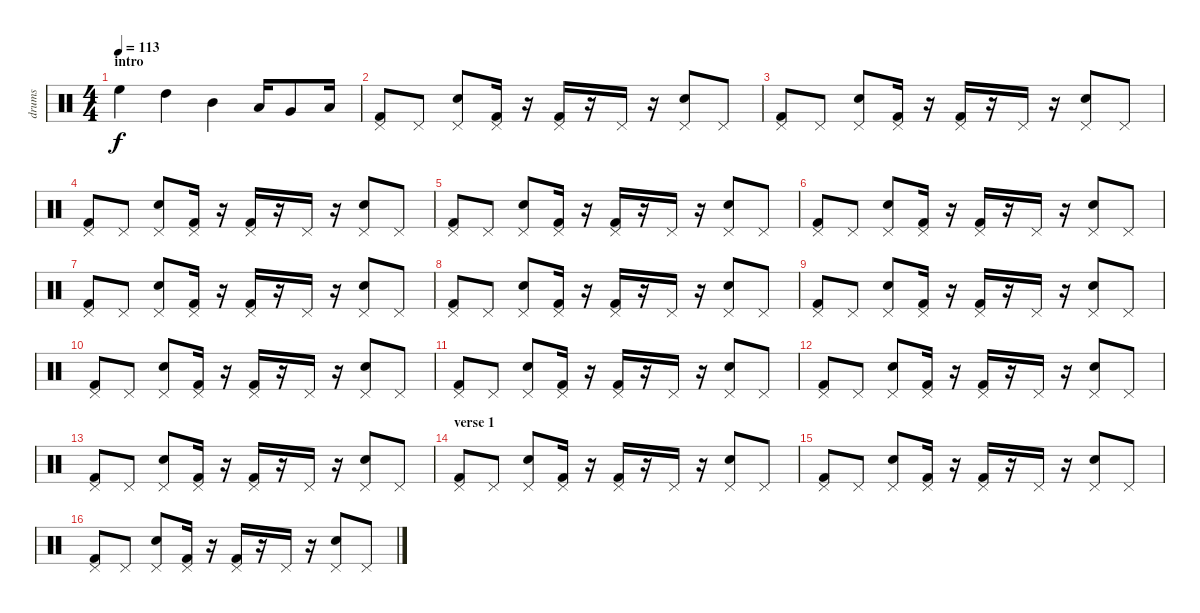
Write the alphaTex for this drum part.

\track ("drums" "drums") {instrument percussion}
\staff {score}
\articulation defaults
\ts (4 4)
\section ("" "intro")
\tempo 113
\clef neutral
\ks c "High Floor Tom (hit)".4{dy f} "High Tom (hit)".4 "Mid Tom (hit)".4 "Low Tom (hit)".16 "Very Low Tom (hit)".8 "Low Floor Tom (hit)".16
|
("Kick (hit) 2" "Pedal Hi-Hat (hit)").8 "Pedal Hi-Hat (hit)".8 ("Snare (hit) 2" "Pedal Hi-Hat (hit)").8 ("Kick (hit) 2" "Pedal Hi-Hat (hit)").16 r.16 ("Kick (hit) 2" "Pedal Hi-Hat (hit)").16 r.16 "Pedal Hi-Hat (hit)".16 r.16 ("Snare (hit) 2" "Pedal Hi-Hat (hit)").8 "Pedal Hi-Hat (hit)".8 |
("Kick (hit) 2" "Pedal Hi-Hat (hit)").8 "Pedal Hi-Hat (hit)".8 ("Snare (hit) 2" "Pedal Hi-Hat (hit)").8 ("Kick (hit) 2" "Pedal Hi-Hat (hit)").16 r.16 ("Kick (hit) 2" "Pedal Hi-Hat (hit)").16 r.16 "Pedal Hi-Hat (hit)".16 r.16 ("Snare (hit) 2" "Pedal Hi-Hat (hit)").8 "Pedal Hi-Hat (hit)".8 |
("Kick (hit) 2" "Pedal Hi-Hat (hit)").8 "Pedal Hi-Hat (hit)".8 ("Snare (hit) 2" "Pedal Hi-Hat (hit)").8 ("Kick (hit) 2" "Pedal Hi-Hat (hit)").16 r.16 ("Kick (hit) 2" "Pedal Hi-Hat (hit)").16 r.16 "Pedal Hi-Hat (hit)".16 r.16 ("Snare (hit) 2" "Pedal Hi-Hat (hit)").8 "Pedal Hi-Hat (hit)".8 |
("Kick (hit) 2" "Pedal Hi-Hat (hit)").8 "Pedal Hi-Hat (hit)".8 ("Snare (hit) 2" "Pedal Hi-Hat (hit)").8 ("Kick (hit) 2" "Pedal Hi-Hat (hit)").16 r.16 ("Kick (hit) 2" "Pedal Hi-Hat (hit)").16 r.16 "Pedal Hi-Hat (hit)".16 r.16 ("Snare (hit) 2" "Pedal Hi-Hat (hit)").8 "Pedal Hi-Hat (hit)".8 |
("Kick (hit) 2" "Pedal Hi-Hat (hit)").8 "Pedal Hi-Hat (hit)".8 ("Snare (hit) 2" "Pedal Hi-Hat (hit)").8 ("Kick (hit) 2" "Pedal Hi-Hat (hit)").16 r.16 ("Kick (hit) 2" "Pedal Hi-Hat (hit)").16 r.16 "Pedal Hi-Hat (hit)".16 r.16 ("Snare (hit) 2" "Pedal Hi-Hat (hit)").8 "Pedal Hi-Hat (hit)".8 |
("Kick (hit) 2" "Pedal Hi-Hat (hit)").8 "Pedal Hi-Hat (hit)".8 ("Snare (hit) 2" "Pedal Hi-Hat (hit)").8 ("Kick (hit) 2" "Pedal Hi-Hat (hit)").16 r.16 ("Kick (hit) 2" "Pedal Hi-Hat (hit)").16 r.16 "Pedal Hi-Hat (hit)".16 r.16 ("Snare (hit) 2" "Pedal Hi-Hat (hit)").8 "Pedal Hi-Hat (hit)".8 |
("Kick (hit) 2" "Pedal Hi-Hat (hit)").8 "Pedal Hi-Hat (hit)".8 ("Snare (hit) 2" "Pedal Hi-Hat (hit)").8 ("Kick (hit) 2" "Pedal Hi-Hat (hit)").16 r.16 ("Kick (hit) 2" "Pedal Hi-Hat (hit)").16 r.16 "Pedal Hi-Hat (hit)".16 r.16 ("Snare (hit) 2" "Pedal Hi-Hat (hit)").8 "Pedal Hi-Hat (hit)".8 |
("Kick (hit) 2" "Pedal Hi-Hat (hit)").8 "Pedal Hi-Hat (hit)".8 ("Snare (hit) 2" "Pedal Hi-Hat (hit)").8 ("Kick (hit) 2" "Pedal Hi-Hat (hit)").16 r.16 ("Kick (hit) 2" "Pedal Hi-Hat (hit)").16 r.16 "Pedal Hi-Hat (hit)".16 r.16 ("Snare (hit) 2" "Pedal Hi-Hat (hit)").8 "Pedal Hi-Hat (hit)".8 |
("Kick (hit) 2" "Pedal Hi-Hat (hit)").8 "Pedal Hi-Hat (hit)".8 ("Snare (hit) 2" "Pedal Hi-Hat (hit)").8 ("Kick (hit) 2" "Pedal Hi-Hat (hit)").16 r.16 ("Kick (hit) 2" "Pedal Hi-Hat (hit)").16 r.16 "Pedal Hi-Hat (hit)".16 r.16 ("Snare (hit) 2" "Pedal Hi-Hat (hit)").8 "Pedal Hi-Hat (hit)".8 |
("Kick (hit) 2" "Pedal Hi-Hat (hit)").8 "Pedal Hi-Hat (hit)".8 ("Snare (hit) 2" "Pedal Hi-Hat (hit)").8 ("Kick (hit) 2" "Pedal Hi-Hat (hit)").16 r.16 ("Kick (hit) 2" "Pedal Hi-Hat (hit)").16 r.16 "Pedal Hi-Hat (hit)".16 r.16 ("Snare (hit) 2" "Pedal Hi-Hat (hit)").8 "Pedal Hi-Hat (hit)".8 |
("Kick (hit) 2" "Pedal Hi-Hat (hit)").8 "Pedal Hi-Hat (hit)".8 ("Snare (hit) 2" "Pedal Hi-Hat (hit)").8 ("Kick (hit) 2" "Pedal Hi-Hat (hit)").16 r.16 ("Kick (hit) 2" "Pedal Hi-Hat (hit)").16 r.16 "Pedal Hi-Hat (hit)".16 r.16 ("Snare (hit) 2" "Pedal Hi-Hat (hit)").8 "Pedal Hi-Hat (hit)".8 |
("Kick (hit) 2" "Pedal Hi-Hat (hit)").8 "Pedal Hi-Hat (hit)".8 ("Snare (hit) 2" "Pedal Hi-Hat (hit)").8 ("Kick (hit) 2" "Pedal Hi-Hat (hit)").16 r.16 ("Kick (hit) 2" "Pedal Hi-Hat (hit)").16 r.16 "Pedal Hi-Hat (hit)".16 r.16 ("Snare (hit) 2" "Pedal Hi-Hat (hit)").8 "Pedal Hi-Hat (hit)".8 |
\section ("" "verse 1")
("Kick (hit) 2" "Pedal Hi-Hat (hit)").8 "Pedal Hi-Hat (hit)".8 ("Snare (hit) 2" "Pedal Hi-Hat (hit)").8 ("Kick (hit) 2" "Pedal Hi-Hat (hit)").16 r.16 ("Kick (hit) 2" "Pedal Hi-Hat (hit)").16 r.16 "Pedal Hi-Hat (hit)".16 r.16 ("Snare (hit) 2" "Pedal Hi-Hat (hit)").8 "Pedal Hi-Hat (hit)".8 |
("Kick (hit) 2" "Pedal Hi-Hat (hit)").8 "Pedal Hi-Hat (hit)".8 ("Snare (hit) 2" "Pedal Hi-Hat (hit)").8 ("Kick (hit) 2" "Pedal Hi-Hat (hit)").16 r.16 ("Kick (hit) 2" "Pedal Hi-Hat (hit)").16 r.16 "Pedal Hi-Hat (hit)".16 r.16 ("Snare (hit) 2" "Pedal Hi-Hat (hit)").8 "Pedal Hi-Hat (hit)".8 |
("Kick (hit) 2" "Pedal Hi-Hat (hit)").8 "Pedal Hi-Hat (hit)".8 ("Snare (hit) 2" "Pedal Hi-Hat (hit)").8 ("Kick (hit) 2" "Pedal Hi-Hat (hit)").16 r.16 ("Kick (hit) 2" "Pedal Hi-Hat (hit)").16 r.16 "Pedal Hi-Hat (hit)".16 r.16 ("Snare (hit) 2" "Pedal Hi-Hat (hit)").8 "Pedal Hi-Hat (hit)".8
